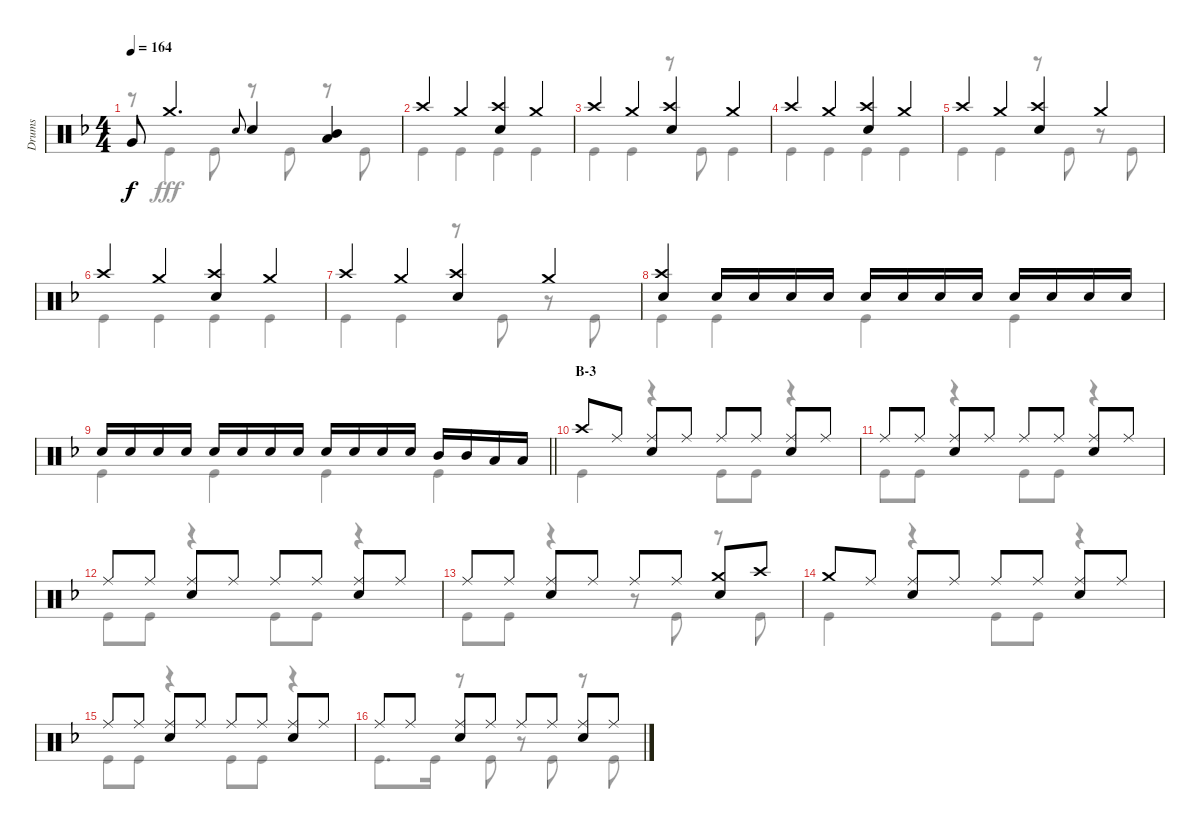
\track ("Drums" "Drums") {instrument percussion}
\staff {score}
\articulation defaults
\voice
\ts (4 4)
\tempo 164
\clef neutral
\ks f "Very Low Tom (hit)".8{dy f} "Crash medium (hit)".4{d} "Snare (hit) 2".8{gr onbeat} "Snare (hit) 2".4
("Mid Tom (hit)" "Low Tom (hit)").4 |
"Crash high (hit)".4 "Crash medium (hit)".4 ("Crash high (hit)" "Snare (hit) 2").4 "Crash medium (hit)".4 |
"Crash high (hit)".4 "Crash medium (hit)".4 ("Crash high (hit)" "Snare (hit) 2").4 "Crash medium (hit)".4 |
"Crash high (hit)".4 "Crash medium (hit)".4 ("Crash high (hit)" "Snare (hit) 2").4 "Crash medium (hit)".4 |
"Crash high (hit)".4 "Crash medium (hit)".4 ("Crash high (hit)" "Snare (hit) 2").4 "Crash medium (hit)".4 |
"Crash high (hit)".4 "Crash medium (hit)".4 ("Crash high (hit)" "Snare (hit) 2").4 "Crash medium (hit)".4 |
"Crash high (hit)".4 "Crash medium (hit)".4 ("Crash high (hit)" "Snare (hit) 2").4 "Crash medium (hit)".4 |
("Crash high (hit)" "Snare (hit) 2").4 "Snare (hit) 2".16 "Snare (hit) 2".16 "Snare (hit) 2".16 "Snare (hit) 2".16 "Snare (hit) 2".16 "Snare (hit) 2".16 "Snare (hit) 2".16 "Snare (hit) 2".16 "Snare (hit) 2".16 "Snare (hit) 2".16 "Snare (hit) 2".16 "Snare (hit) 2".16 |
\barLineRight lightlight "Snare (hit) 2".16 "Snare (hit) 2".16 "Snare (hit) 2".16 "Snare (hit) 2".16 "Snare (hit) 2".16 "Snare (hit) 2".16 "Snare (hit) 2".16 "Snare (hit) 2".16 "Snare (hit) 2".16 "Snare (hit) 2".16 "Snare (hit) 2".16 "Snare (hit) 2".16 "Mid Tom (hit)".16 "Mid Tom (hit)".16 "Low Tom (hit)".16 "Low Tom (hit)".16
|
\section ("" "B-3")
"Crash high (hit)".8 "Ride (middle)".8 ("Ride (middle)" "Snare (hit) 2").8 "Ride (middle)".8 "Ride (middle)".8 "Ride (middle)".8 ("Ride (middle)" "Snare (hit) 2").8 "Ride (middle)".8 |
"Ride (middle)".8 "Ride (middle)".8 ("Ride (middle)" "Snare (hit) 2").8 "Ride (middle)".8 "Ride (middle)".8 "Ride (middle)".8 ("Ride (middle)" "Snare (hit) 2").8 "Ride (middle)".8 |
"Ride (middle)".8 "Ride (middle)".8 ("Ride (middle)" "Snare (hit) 2").8 "Ride (middle)".8 "Ride (middle)".8 "Ride (middle)".8 ("Ride (middle)" "Snare (hit) 2").8 "Ride (middle)".8 |
"Ride (middle)".8 "Ride (middle)".8 ("Ride (middle)" "Snare (hit) 2").8 "Ride (middle)".8 "Ride (middle)".8 "Ride (middle)".8 ("Crash medium (hit)" "Snare (hit) 2").8 "Crash high (hit)".8 |
"Crash medium (hit)".8 "Ride (middle)".8 ("Ride (middle)" "Snare (hit) 2").8 "Ride (middle)".8 "Ride (middle)".8 "Ride (middle)".8 ("Ride (middle)" "Snare (hit) 2").8 "Ride (middle)".8 |
"Ride (middle)".8 "Ride (middle)".8 ("Ride (middle)" "Snare (hit) 2").8 "Ride (middle)".8 "Ride (middle)".8 "Ride (middle)".8 ("Ride (middle)" "Snare (hit) 2").8 "Ride (middle)".8 |
"Ride (middle)".8 "Ride (middle)".8 ("Ride (middle)" "Snare (hit) 2").8 "Ride (middle)".8 "Ride (middle)".8 "Ride (middle)".8 ("Ride (middle)" "Snare (hit) 2").8 "Ride (middle)".8
\voice
\clef neutral
\ottava regular
\simile none
\ks f
r.8{dy fff} "Kick (hit)".4 "Kick (hit)".8 r.8 "Kick (hit)".8 r.8 "Kick (hit)".8 |
"Kick (hit)".4 "Kick (hit)".4 "Kick (hit)".4 "Kick (hit)".4 |
"Kick (hit)".4 "Kick (hit)".4 r.8 "Kick (hit)".8 "Kick (hit)".4 |
"Kick (hit)".4 "Kick (hit)".4 "Kick (hit)".4 "Kick (hit)".4 |
"Kick (hit)".4 "Kick (hit)".4 r.8 "Kick (hit)".8 r.8 "Kick (hit)".8 |
"Kick (hit)".4 "Kick (hit)".4 "Kick (hit)".4 "Kick (hit)".4 |
"Kick (hit)".4 "Kick (hit)".4 r.8 "Kick (hit)".8 r.8 "Kick (hit)".8 |
"Kick (hit)".4 "Kick (hit)".4 "Kick (hit)".4 "Kick (hit)".4 |
\barLineRight lightlight "Kick (hit)".4 "Kick (hit)".4 "Kick (hit)".4 "Kick (hit)".4
|
"Kick (hit)".4 r.4 "Kick (hit)".8 "Kick (hit)".8 r.4 |
"Kick (hit)".8 "Kick (hit)".8 r.4 "Kick (hit)".8 "Kick (hit)".8 r.4 |
"Kick (hit)".8 "Kick (hit)".8 r.4 "Kick (hit)".8 "Kick (hit)".8 r.4 |
"Kick (hit)".8 "Kick (hit)".8 r.4 r.8 "Kick (hit)".8 r.8 "Kick (hit)".8 |
"Kick (hit)".4 r.4 "Kick (hit)".8 "Kick (hit)".8 r.4 |
"Kick (hit)".8 "Kick (hit)".8 r.4 "Kick (hit)".8 "Kick (hit)".8 r.4 |
"Kick (hit)".8{d} "Kick (hit)".16 r.8 "Kick (hit)".8 r.8 "Kick (hit)".8 r.8 "Kick (hit)".8
